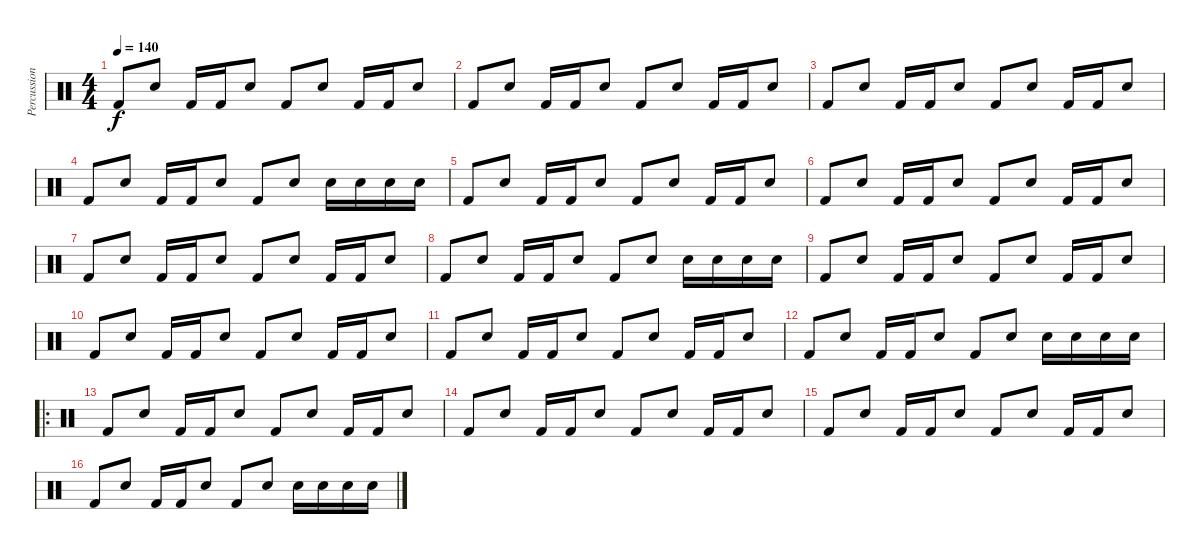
\track ("Percussion" "Percussion") {instrument percussion}
\staff {score}
\articulation defaults
\ts (4 4)
\tempo 140
\clef neutral
\ks c "Kick (hit) 2".8{dy f} "Snare (hit) 2".8 "Kick (hit) 2".16 "Kick (hit) 2".16 "Snare (hit) 2".8 "Kick (hit) 2".8 "Snare (hit) 2".8 "Kick (hit) 2".16 "Kick (hit) 2".16 "Snare (hit) 2".8
|
"Kick (hit) 2".8 "Snare (hit) 2".8 "Kick (hit) 2".16 "Kick (hit) 2".16 "Snare (hit) 2".8 "Kick (hit) 2".8 "Snare (hit) 2".8 "Kick (hit) 2".16 "Kick (hit) 2".16 "Snare (hit) 2".8 |
"Kick (hit) 2".8 "Snare (hit) 2".8 "Kick (hit) 2".16 "Kick (hit) 2".16 "Snare (hit) 2".8 "Kick (hit) 2".8 "Snare (hit) 2".8 "Kick (hit) 2".16 "Kick (hit) 2".16 "Snare (hit) 2".8 |
"Kick (hit) 2".8 "Snare (hit) 2".8 "Kick (hit) 2".16 "Kick (hit) 2".16 "Snare (hit) 2".8 "Kick (hit) 2".8 "Snare (hit) 2".8 "Snare (hit) 2".16 "Snare (hit) 2".16 "Snare (hit) 2".16 "Snare (hit) 2".16 |
"Kick (hit) 2".8 "Snare (hit) 2".8 "Kick (hit) 2".16 "Kick (hit) 2".16 "Snare (hit) 2".8 "Kick (hit) 2".8 "Snare (hit) 2".8 "Kick (hit) 2".16 "Kick (hit) 2".16 "Snare (hit) 2".8 |
"Kick (hit) 2".8 "Snare (hit) 2".8 "Kick (hit) 2".16 "Kick (hit) 2".16 "Snare (hit) 2".8 "Kick (hit) 2".8 "Snare (hit) 2".8 "Kick (hit) 2".16 "Kick (hit) 2".16 "Snare (hit) 2".8 |
"Kick (hit) 2".8 "Snare (hit) 2".8 "Kick (hit) 2".16 "Kick (hit) 2".16 "Snare (hit) 2".8 "Kick (hit) 2".8 "Snare (hit) 2".8 "Kick (hit) 2".16 "Kick (hit) 2".16 "Snare (hit) 2".8 |
"Kick (hit) 2".8 "Snare (hit) 2".8 "Kick (hit) 2".16 "Kick (hit) 2".16 "Snare (hit) 2".8 "Kick (hit) 2".8 "Snare (hit) 2".8 "Snare (hit) 2".16 "Snare (hit) 2".16 "Snare (hit) 2".16 "Snare (hit) 2".16 |
"Kick (hit) 2".8 "Snare (hit) 2".8 "Kick (hit) 2".16 "Kick (hit) 2".16 "Snare (hit) 2".8 "Kick (hit) 2".8 "Snare (hit) 2".8 "Kick (hit) 2".16 "Kick (hit) 2".16 "Snare (hit) 2".8 |
"Kick (hit) 2".8 "Snare (hit) 2".8 "Kick (hit) 2".16 "Kick (hit) 2".16 "Snare (hit) 2".8 "Kick (hit) 2".8 "Snare (hit) 2".8 "Kick (hit) 2".16 "Kick (hit) 2".16 "Snare (hit) 2".8 |
"Kick (hit) 2".8 "Snare (hit) 2".8 "Kick (hit) 2".16 "Kick (hit) 2".16 "Snare (hit) 2".8 "Kick (hit) 2".8 "Snare (hit) 2".8 "Kick (hit) 2".16 "Kick (hit) 2".16 "Snare (hit) 2".8 |
"Kick (hit) 2".8 "Snare (hit) 2".8 "Kick (hit) 2".16 "Kick (hit) 2".16 "Snare (hit) 2".8 "Kick (hit) 2".8 "Snare (hit) 2".8 "Snare (hit) 2".16 "Snare (hit) 2".16 "Snare (hit) 2".16 "Snare (hit) 2".16 |
\ro "Kick (hit) 2".8 "Snare (hit) 2".8 "Kick (hit) 2".16 "Kick (hit) 2".16 "Snare (hit) 2".8 "Kick (hit) 2".8 "Snare (hit) 2".8 "Kick (hit) 2".16 "Kick (hit) 2".16 "Snare (hit) 2".8
|
"Kick (hit) 2".8 "Snare (hit) 2".8 "Kick (hit) 2".16 "Kick (hit) 2".16 "Snare (hit) 2".8 "Kick (hit) 2".8 "Snare (hit) 2".8 "Kick (hit) 2".16 "Kick (hit) 2".16 "Snare (hit) 2".8 |
"Kick (hit) 2".8 "Snare (hit) 2".8 "Kick (hit) 2".16 "Kick (hit) 2".16 "Snare (hit) 2".8 "Kick (hit) 2".8 "Snare (hit) 2".8 "Kick (hit) 2".16 "Kick (hit) 2".16 "Snare (hit) 2".8 |
"Kick (hit) 2".8 "Snare (hit) 2".8 "Kick (hit) 2".16 "Kick (hit) 2".16 "Snare (hit) 2".8 "Kick (hit) 2".8 "Snare (hit) 2".8 "Snare (hit) 2".16 "Snare (hit) 2".16 "Snare (hit) 2".16 "Snare (hit) 2".16
